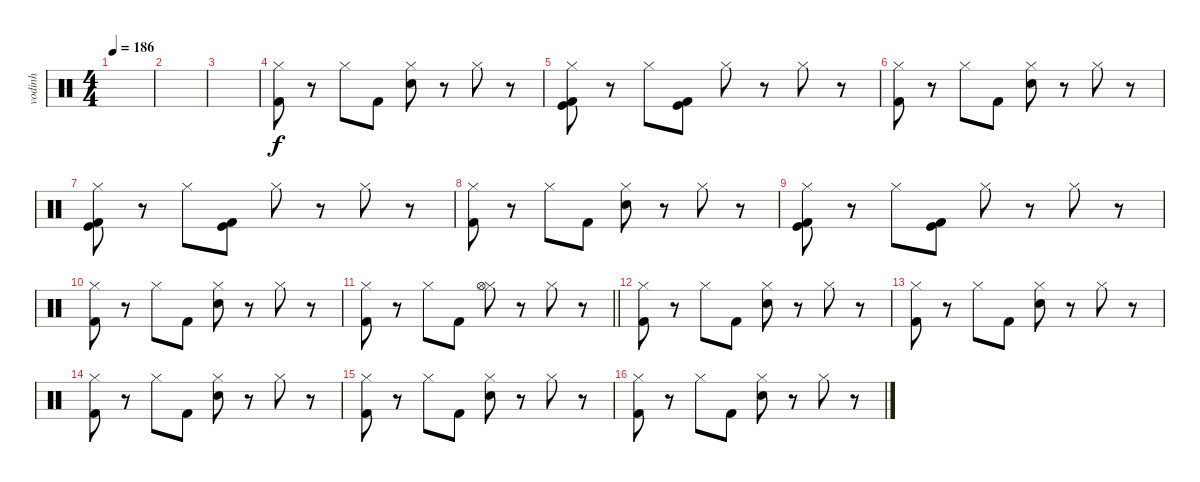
\track ("vodinh" "vodinh") {instrument percussion}
\staff {score}
\articulation defaults
\ts (4 4)
\tempo 186
\clef neutral
\ks c
|
|
|
("Hi-Hat (closed)" "Kick (hit) 2").8 r.8 "Hi-Hat (closed)".8 "Kick (hit) 2".8 ("Hi-Hat (closed)" "Snare (hit) 2").8 r.8 "Hi-Hat (closed)".8 r.8 |
("Hi-Hat (closed)" "Kick (hit) 2" "Kick (hit)").8 r.8 "Hi-Hat (closed)".8 ("Kick (hit) 2" "Kick (hit)").8 "Hi-Hat (closed)".8 r.8 "Hi-Hat (closed)".8 r.8 |
("Hi-Hat (closed)" "Kick (hit) 2").8 r.8 "Hi-Hat (closed)".8 "Kick (hit) 2".8 ("Hi-Hat (closed)" "Snare (hit) 2").8 r.8 "Hi-Hat (closed)".8 r.8 |
("Hi-Hat (closed)" "Kick (hit) 2" "Kick (hit)").8 r.8 "Hi-Hat (closed)".8 ("Kick (hit) 2" "Kick (hit)").8 "Hi-Hat (closed)".8 r.8 "Hi-Hat (closed)".8 r.8 |
("Hi-Hat (closed)" "Kick (hit) 2").8 r.8 "Hi-Hat (closed)".8 "Kick (hit) 2".8 ("Hi-Hat (closed)" "Snare (hit) 2").8 r.8 "Hi-Hat (closed)".8 r.8 |
("Hi-Hat (closed)" "Kick (hit) 2" "Kick (hit)").8 r.8 "Hi-Hat (closed)".8 ("Kick (hit) 2" "Kick (hit)").8 "Hi-Hat (closed)".8 r.8 "Hi-Hat (closed)".8 r.8 |
("Hi-Hat (closed)" "Kick (hit) 2").8 r.8 "Hi-Hat (closed)".8 "Kick (hit) 2".8 ("Hi-Hat (closed)" "Snare (hit) 2").8 r.8 "Hi-Hat (closed)".8 r.8 |
\barLineRight lightlight
("Hi-Hat (closed)" "Kick (hit) 2").8 r.8 "Hi-Hat (closed)".8 "Kick (hit) 2".8 ("Hi-Hat (closed)" "Hi-Hat (open)").8 r.8 "Hi-Hat (closed)".8 r.8 |
\section ("" " ")
("Hi-Hat (closed)" "Kick (hit) 2").8 r.8 "Hi-Hat (closed)".8 "Kick (hit) 2".8 ("Hi-Hat (closed)" "Snare (hit) 2").8 r.8 "Hi-Hat (closed)".8 r.8 |
("Hi-Hat (closed)" "Kick (hit) 2").8 r.8 "Hi-Hat (closed)".8 "Kick (hit) 2".8 ("Hi-Hat (closed)" "Snare (hit) 2").8 r.8 "Hi-Hat (closed)".8 r.8 |
("Hi-Hat (closed)" "Kick (hit) 2").8 r.8 "Hi-Hat (closed)".8 "Kick (hit) 2".8 ("Hi-Hat (closed)" "Snare (hit) 2").8 r.8 "Hi-Hat (closed)".8 r.8 |
("Hi-Hat (closed)" "Kick (hit) 2").8 r.8 "Hi-Hat (closed)".8 "Kick (hit) 2".8 ("Hi-Hat (closed)" "Snare (hit) 2").8 r.8 "Hi-Hat (closed)".8 r.8 |
("Hi-Hat (closed)" "Kick (hit) 2").8 r.8 "Hi-Hat (closed)".8 "Kick (hit) 2".8 ("Hi-Hat (closed)" "Snare (hit) 2").8 r.8 "Hi-Hat (closed)".8 r.8
